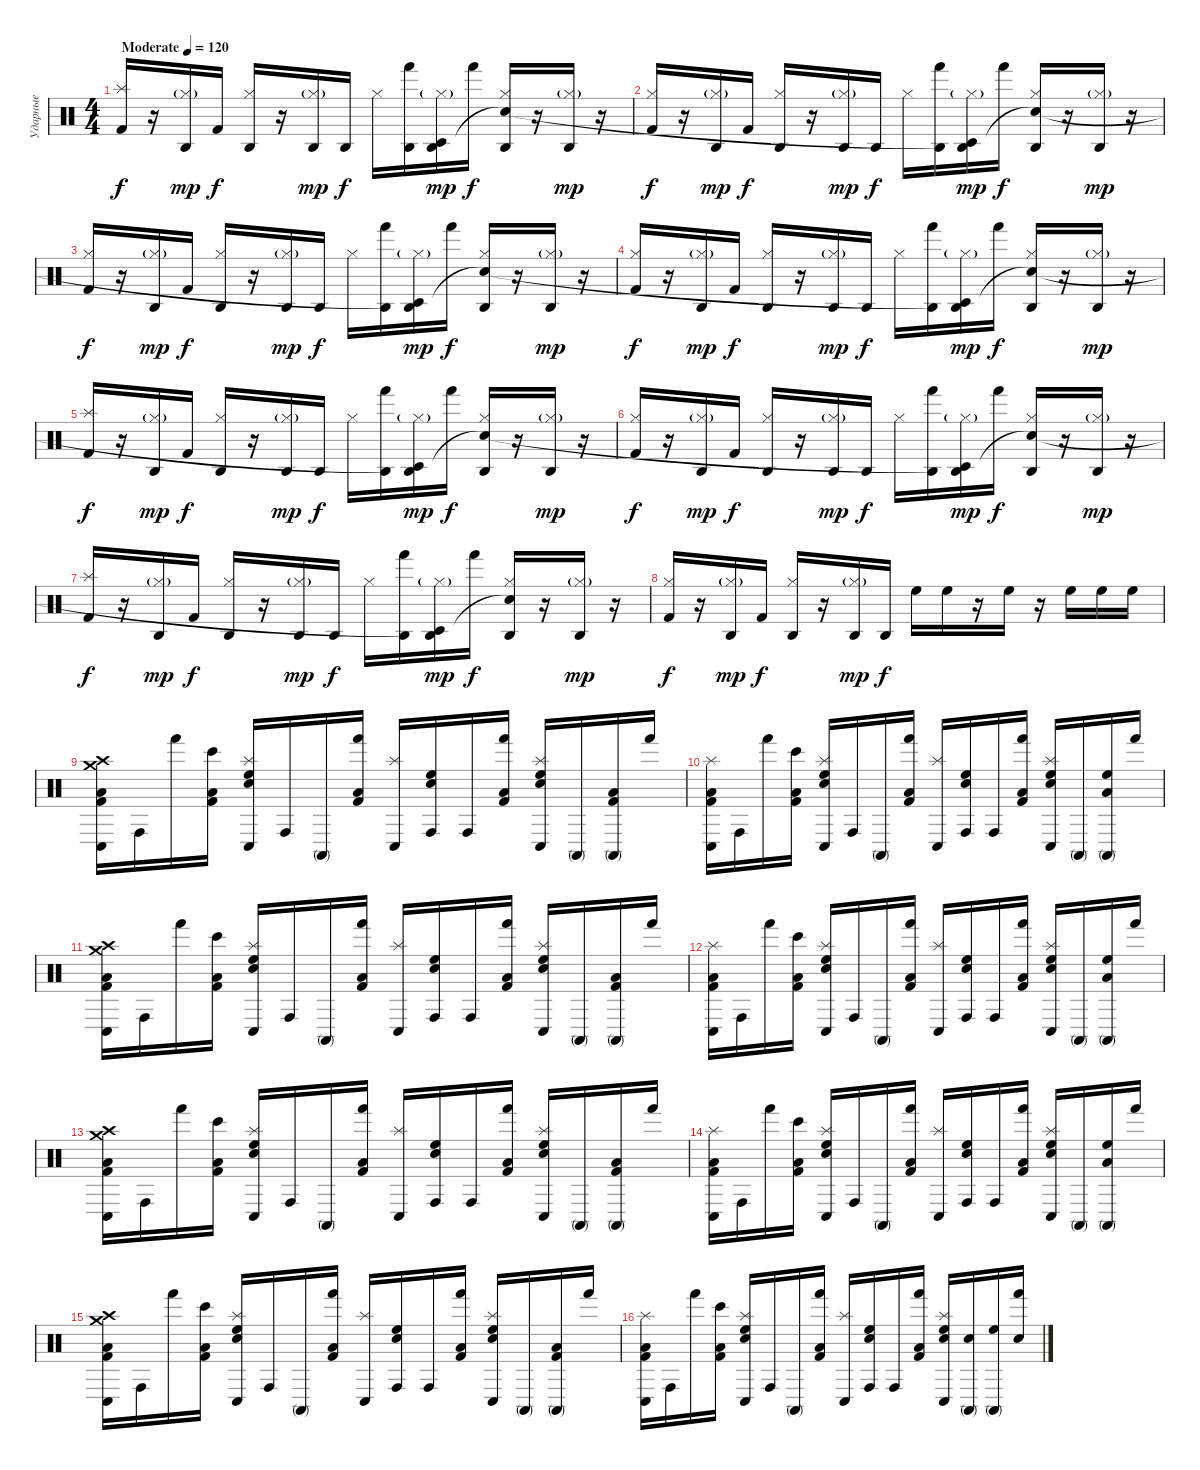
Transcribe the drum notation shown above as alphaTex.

\track ("Ударные" "Ударные") {instrument percussion}
\staff
\articulation defaults
\ts (4 4)
\tempo (120 "Moderate")
\clef neutral
\ks c
("Splash (hit)" "Kick (hit) 2").16{dy f} r.16 ("Hi-Hat (closed)"{g} "Agogo high (hit)").16{dy mp} "Kick (hit) 2".16{dy f} ("Hi-Hat (closed)" "Agogo high (hit)").16 r.16 ("Hi-Hat (closed)"{g} "Agogo high (hit)").16{dy mp} "Agogo high (hit)".16{dy f} "Hi-Hat (closed)".16 ("Agogo high (hit)" "Hand (hit)").16 ("Hi-Hat (closed)"{g} "Agogo high (hit)" "Timbale low (hit)").16{dy mp} "Hand (hit)".16{dy f} ("Hi-Hat (closed)" "Agogo high (hit)" "Snare (hit)"{t}).16 r.16 ("Hi-Hat (closed)"{g} "Agogo high (hit)").16{dy mp} r.16 |
("Hi-Hat (closed)" "Kick (hit) 2").16{dy f} r.16 ("Hi-Hat (closed)"{g} "Agogo high (hit)").16{dy mp} "Kick (hit) 2".16{dy f} ("Hi-Hat (closed)" "Agogo high (hit)").16 r.16 ("Hi-Hat (closed)"{g} "Agogo high (hit)").16{dy mp} "Agogo high (hit)".16{dy f} "Hi-Hat (closed)".16 ("Agogo high (hit)" "Hand (hit)").16 ("Hi-Hat (closed)"{g} "Agogo high (hit)" "Timbale low (hit)"{t}).16{dy mp} "Hand (hit)".16{dy f} ("Hi-Hat (closed)" "Agogo high (hit)" "Snare (hit)"{t}).16 r.16 ("Hi-Hat (closed)"{g} "Agogo high (hit)").16{dy mp} r.16 |
("Hi-Hat (closed)" "Kick (hit) 2").16{dy f} r.16 ("Hi-Hat (closed)"{g} "Agogo high (hit)").16{dy mp} "Kick (hit) 2".16{dy f} ("Hi-Hat (closed)" "Agogo high (hit)").16 r.16 ("Hi-Hat (closed)"{g} "Agogo high (hit)").16{dy mp} "Agogo high (hit)".16{dy f} "Hi-Hat (closed)".16 ("Agogo high (hit)" "Hand (hit)").16 ("Hi-Hat (closed)"{g} "Agogo high (hit)" "Timbale low (hit)"{t}).16{dy mp} "Hand (hit)".16{dy f} ("Hi-Hat (closed)" "Agogo high (hit)" "Snare (hit)"{t}).16 r.16 ("Hi-Hat (closed)"{g} "Agogo high (hit)").16{dy mp} r.16 |
("Hi-Hat (closed)" "Kick (hit) 2").16{dy f} r.16 ("Hi-Hat (closed)"{g} "Agogo high (hit)").16{dy mp} "Kick (hit) 2".16{dy f} ("Hi-Hat (closed)" "Agogo high (hit)").16 r.16 ("Hi-Hat (closed)"{g} "Agogo high (hit)").16{dy mp} "Agogo high (hit)".16{dy f} "Hi-Hat (closed)".16 ("Agogo high (hit)" "Hand (hit)").16 ("Hi-Hat (closed)"{g} "Agogo high (hit)" "Timbale low (hit)"{t}).16{dy mp} "Hand (hit)".16{dy f} ("Hi-Hat (closed)" "Agogo high (hit)" "Snare (hit)"{t}).16 r.16 ("Hi-Hat (closed)"{g} "Agogo high (hit)").16{dy mp} r.16 |
("Splash (hit)" "Kick (hit) 2").16{dy f} r.16 ("Hi-Hat (closed)"{g} "Agogo high (hit)").16{dy mp} "Kick (hit) 2".16{dy f} ("Hi-Hat (closed)" "Agogo high (hit)").16 r.16 ("Hi-Hat (closed)"{g} "Agogo high (hit)").16{dy mp} "Agogo high (hit)".16{dy f} "Hi-Hat (closed)".16 ("Agogo high (hit)" "Hand (hit)").16 ("Hi-Hat (closed)"{g} "Agogo high (hit)" "Timbale low (hit)"{t}).16{dy mp} "Hand (hit)".16{dy f} ("Hi-Hat (closed)" "Agogo high (hit)" "Snare (hit)"{t}).16 r.16 ("Hi-Hat (closed)"{g} "Agogo high (hit)").16{dy mp} r.16 |
("Hi-Hat (closed)" "Kick (hit) 2").16{dy f} r.16 ("Hi-Hat (closed)"{g} "Agogo high (hit)").16{dy mp} "Kick (hit) 2".16{dy f} ("Hi-Hat (closed)" "Agogo high (hit)").16 r.16 ("Hi-Hat (closed)"{g} "Agogo high (hit)").16{dy mp} "Agogo high (hit)".16{dy f} "Hi-Hat (closed)".16 ("Agogo high (hit)" "Hand (hit)").16 ("Hi-Hat (closed)"{g} "Agogo high (hit)" "Timbale low (hit)"{t}).16{dy mp} "Hand (hit)".16{dy f} ("Hi-Hat (closed)" "Agogo high (hit)" "Snare (hit)"{t}).16 r.16 ("Hi-Hat (closed)"{g} "Agogo high (hit)").16{dy mp} r.16 |
("Splash (hit)" "Kick (hit) 2").16{dy f} r.16 ("Hi-Hat (closed)"{g} "Agogo high (hit)").16{dy mp} "Kick (hit) 2".16{dy f} ("Hi-Hat (closed)" "Agogo high (hit)").16 r.16 ("Hi-Hat (closed)"{g} "Agogo high (hit)").16{dy mp} "Agogo high (hit)".16{dy f} "Hi-Hat (closed)".16 ("Agogo high (hit)" "Hand (hit)").16 ("Hi-Hat (closed)"{g} "Agogo high (hit)" "Timbale low (hit)"{t}).16{dy mp} "Hand (hit)".16{dy f} ("Hi-Hat (closed)" "Agogo high (hit)" "Snare (hit)"{t}).16 r.16 ("Hi-Hat (closed)"{g} "Agogo high (hit)").16{dy mp} r.16 |
("Hi-Hat (closed)" "Kick (hit) 2").16{dy f} r.16 ("Hi-Hat (closed)"{g} "Agogo high (hit)").16{dy mp} "Kick (hit) 2".16{dy f} ("Hi-Hat (closed)" "Agogo high (hit)").16 r.16 ("Hi-Hat (closed)"{g} "Agogo high (hit)").16{dy mp} "Agogo high (hit)".16{dy f} "High Floor Tom (hit)".16 "High Floor Tom (hit)".16 r.16 "High Floor Tom (hit)".16 r.16 "High Floor Tom (hit)".16 "High Floor Tom (hit)".16 "High Floor Tom (hit)".16 |
("Crash medium (hit)" "Crash high (hit)" "Conga low (hit)" "Low Floor Tom (hit)" "Kick (hit) 2").16 "Conga high (hit)".16 "Hand (hit)".16 ("Bongo High (hit)" "Low Floor Tom (hit)" "Kick (hit) 2").16 ("Splash (hit)" "Conga low (hit)" "High Floor Tom (hit)" "Electric Snare (hit)").16 "Conga high (hit)".16 "Conga high (mute)".16 ("Hand (hit)" "Low Floor Tom (hit)" "Kick (hit) 2").16 ("Splash (hit)" "Conga low (hit)").16 ("Conga high (hit)" "High Floor Tom (hit)" "Electric Snare (hit)").16 "Conga high (hit)".16 ("Hand (hit)" "Low Floor Tom (hit)" "Kick (hit) 2").16 ("Splash (hit)" "Conga low (hit)" "High Floor Tom (hit)" "Electric Snare (hit)").16 "Conga high (mute)".16 ("Conga high (mute)" "Low Tom (hit)" "Kick (hit) 2").16 "Hand (hit)".16 |
("Splash (hit)" "Conga low (hit)" "Low Floor Tom (hit)" "Kick (hit) 2").16 "Conga high (hit)".16 "Hand (hit)".16 ("Bongo High (hit)" "Low Floor Tom (hit)" "Kick (hit) 2").16 ("Splash (hit)" "Conga low (hit)" "High Floor Tom (hit)" "Electric Snare (hit)").16 "Conga high (hit)".16 "Conga high (mute)".16 ("Hand (hit)" "Low Floor Tom (hit)" "Kick (hit) 2").16 ("Splash (hit)" "Conga low (hit)").16 ("Conga high (hit)" "High Floor Tom (hit)" "Electric Snare (hit)").16 "Conga high (hit)".16 ("Hand (hit)" "Low Floor Tom (hit)" "Kick (hit) 2").16 ("Splash (hit)" "Conga low (hit)" "High Floor Tom (hit)" "Electric Snare (hit)").16 "Conga high (mute)".16 ("Conga high (mute)" "Low Tom (hit)" "High Floor Tom (hit)").16 "Hand (hit)".16 |
("Crash medium (hit)" "Crash high (hit)" "Conga low (hit)" "Low Floor Tom (hit)" "Kick (hit) 2").16 "Conga high (hit)".16 "Hand (hit)".16 ("Bongo High (hit)" "Low Floor Tom (hit)" "Kick (hit) 2").16 ("Splash (hit)" "Conga low (hit)" "High Floor Tom (hit)" "Electric Snare (hit)").16 "Conga high (hit)".16 "Conga high (mute)".16 ("Hand (hit)" "Low Floor Tom (hit)" "Kick (hit) 2").16 ("Splash (hit)" "Conga low (hit)").16 ("Conga high (hit)" "High Floor Tom (hit)" "Electric Snare (hit)").16 "Conga high (hit)".16 ("Hand (hit)" "Low Floor Tom (hit)" "Kick (hit) 2").16 ("Splash (hit)" "Conga low (hit)" "High Floor Tom (hit)" "Electric Snare (hit)").16 "Conga high (mute)".16 ("Conga high (mute)" "Low Tom (hit)" "Kick (hit) 2").16 "Hand (hit)".16 |
("Splash (hit)" "Conga low (hit)" "Low Floor Tom (hit)" "Kick (hit) 2").16 "Conga high (hit)".16 "Hand (hit)".16 ("Bongo High (hit)" "Low Floor Tom (hit)" "Kick (hit) 2").16 ("Splash (hit)" "Conga low (hit)" "High Floor Tom (hit)" "Electric Snare (hit)").16 "Conga high (hit)".16 "Conga high (mute)".16 ("Hand (hit)" "Low Floor Tom (hit)" "Kick (hit) 2").16 ("Splash (hit)" "Conga low (hit)").16 ("Conga high (hit)" "High Floor Tom (hit)" "Electric Snare (hit)").16 "Conga high (hit)".16 ("Hand (hit)" "Low Floor Tom (hit)" "Kick (hit) 2").16 ("Splash (hit)" "Conga low (hit)" "High Floor Tom (hit)" "Electric Snare (hit)").16 "Conga high (mute)".16 ("Conga high (mute)" "Low Tom (hit)" "High Floor Tom (hit)").16 "Hand (hit)".16 |
("Crash medium (hit)" "Crash high (hit)" "Conga low (hit)" "Low Floor Tom (hit)" "Kick (hit) 2").16 "Conga high (hit)".16 "Hand (hit)".16 ("Bongo High (hit)" "Low Floor Tom (hit)" "Kick (hit) 2").16 ("Splash (hit)" "Conga low (hit)" "High Floor Tom (hit)" "Electric Snare (hit)").16 "Conga high (hit)".16 "Conga high (mute)".16 ("Hand (hit)" "Low Floor Tom (hit)" "Kick (hit) 2").16 ("Splash (hit)" "Conga low (hit)").16 ("Conga high (hit)" "High Floor Tom (hit)" "Electric Snare (hit)").16 "Conga high (hit)".16 ("Hand (hit)" "Low Floor Tom (hit)" "Kick (hit) 2").16 ("Splash (hit)" "Conga low (hit)" "High Floor Tom (hit)" "Electric Snare (hit)").16 "Conga high (mute)".16 ("Conga high (mute)" "Low Tom (hit)" "Kick (hit) 2").16 "Hand (hit)".16 |
("Splash (hit)" "Conga low (hit)" "Low Floor Tom (hit)" "Kick (hit) 2").16 "Conga high (hit)".16 "Hand (hit)".16 ("Bongo High (hit)" "Low Floor Tom (hit)" "Kick (hit) 2").16 ("Splash (hit)" "Conga low (hit)" "High Floor Tom (hit)" "Electric Snare (hit)").16 "Conga high (hit)".16 "Conga high (mute)".16 ("Hand (hit)" "Low Floor Tom (hit)" "Kick (hit) 2").16 ("Splash (hit)" "Conga low (hit)").16 ("Conga high (hit)" "High Floor Tom (hit)" "Electric Snare (hit)").16 "Conga high (hit)".16 ("Hand (hit)" "Low Floor Tom (hit)" "Kick (hit) 2").16 ("Splash (hit)" "Conga low (hit)" "High Floor Tom (hit)" "Electric Snare (hit)").16 "Conga high (mute)".16 ("Conga high (mute)" "Low Tom (hit)" "High Floor Tom (hit)").16 "Hand (hit)".16 |
("Crash medium (hit)" "Crash high (hit)" "Conga low (hit)" "Low Floor Tom (hit)" "Kick (hit) 2").16 "Conga high (hit)".16 "Hand (hit)".16 ("Bongo High (hit)" "Low Floor Tom (hit)" "Kick (hit) 2").16 ("Splash (hit)" "Conga low (hit)" "High Floor Tom (hit)" "Electric Snare (hit)").16 "Conga high (hit)".16 "Conga high (mute)".16 ("Hand (hit)" "Low Floor Tom (hit)" "Kick (hit) 2").16 ("Splash (hit)" "Conga low (hit)").16 ("Conga high (hit)" "High Floor Tom (hit)" "Electric Snare (hit)").16 "Conga high (hit)".16 ("Hand (hit)" "Low Floor Tom (hit)" "Kick (hit) 2").16 ("Splash (hit)" "Conga low (hit)" "High Floor Tom (hit)" "Electric Snare (hit)").16 "Conga high (mute)".16 ("Conga high (mute)" "Low Tom (hit)" "Kick (hit) 2").16 "Hand (hit)".16 |
("Splash (hit)" "Conga low (hit)" "Low Floor Tom (hit)" "Kick (hit) 2").16 "Conga high (hit)".16 "Hand (hit)".16 ("Bongo High (hit)" "Low Floor Tom (hit)" "Kick (hit) 2").16 ("Splash (hit)" "Conga low (hit)" "High Floor Tom (hit)" "Electric Snare (hit)").16 "Conga high (hit)".16 "Conga high (mute)".16 ("Hand (hit)" "Low Floor Tom (hit)" "Kick (hit) 2").16 ("Splash (hit)" "Conga low (hit)").16 ("Conga high (hit)" "High Floor Tom (hit)" "Electric Snare (hit)").16 "Conga high (hit)".16 ("Hand (hit)" "Low Floor Tom (hit)" "Kick (hit) 2").16 ("Splash (hit)" "Conga low (hit)" "High Floor Tom (hit)" "Electric Snare (hit)").16 ("Conga high (mute)" "Electric Snare (hit)").16 ("Conga high (mute)" "High Floor Tom (hit)").16 ("Hand (hit)" "Electric Snare (hit)").16
